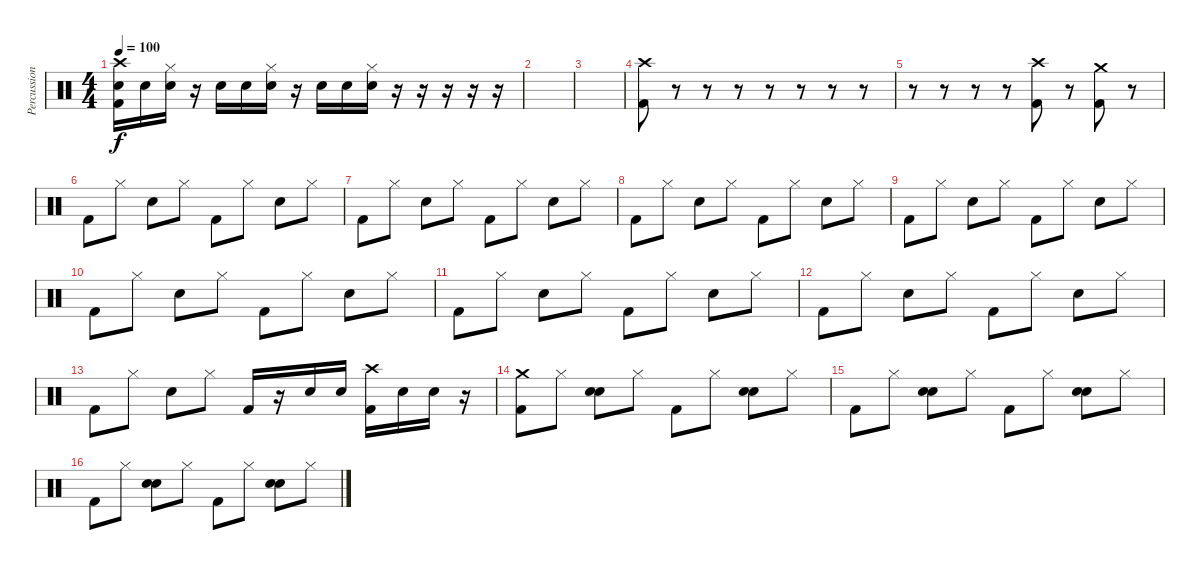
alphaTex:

\track ("Percussions" "Percussion") {instrument percussion}
\staff {score}
\articulation defaults
\ts (4 4)
\tempo 100
\clef neutral
\ks c
("Kick (hit) 2" "Crash high (hit)" "Electric Snare (hit)").16{dy f} "Electric Snare (hit)".16 ("Hi-Hat (closed)" "Electric Snare (hit)").16 r.16 "Electric Snare (hit)".16 "Electric Snare (hit)".16 ("Hi-Hat (closed)" "Electric Snare (hit)").16 r.16 "Electric Snare (hit)".16 "Electric Snare (hit)".16 ("Hi-Hat (closed)" "Electric Snare (hit)").16 r.16 r.16 r.16 r.16 r.16 |
|
|
("Crash high (hit)" "Kick (hit) 2").8 r.8 r.8 r.8 r.8 r.8 r.8 r.8 |
r.8 r.8 r.8 r.8 ("Kick (hit) 2" "Crash high (hit)").8 r.8 ("Kick (hit) 2" "Crash medium (hit)").8 r.8 |
"Kick (hit) 2".8 "Hi-Hat (closed)".8 "Electric Snare (hit)".8 "Hi-Hat (closed)".8 "Kick (hit) 2".8 "Hi-Hat (closed)".8 "Electric Snare (hit)".8 "Hi-Hat (closed)".8 |
"Kick (hit) 2".8 "Hi-Hat (closed)".8 "Electric Snare (hit)".8 "Hi-Hat (closed)".8 "Kick (hit) 2".8 "Hi-Hat (closed)".8 "Electric Snare (hit)".8 "Hi-Hat (closed)".8 |
"Kick (hit) 2".8 "Hi-Hat (closed)".8 "Electric Snare (hit)".8 "Hi-Hat (closed)".8 "Kick (hit) 2".8 "Hi-Hat (closed)".8 "Electric Snare (hit)".8 "Hi-Hat (closed)".8 |
"Kick (hit) 2".8 "Hi-Hat (closed)".8 "Electric Snare (hit)".8 "Hi-Hat (closed)".8 "Kick (hit) 2".8 "Hi-Hat (closed)".8 "Electric Snare (hit)".8 "Hi-Hat (closed)".8 |
"Kick (hit) 2".8 "Hi-Hat (closed)".8 "Electric Snare (hit)".8 "Hi-Hat (closed)".8 "Kick (hit) 2".8 "Hi-Hat (closed)".8 "Electric Snare (hit)".8 "Hi-Hat (closed)".8 |
"Kick (hit) 2".8 "Hi-Hat (closed)".8 "Electric Snare (hit)".8 "Hi-Hat (closed)".8 "Kick (hit) 2".8 "Hi-Hat (closed)".8 "Electric Snare (hit)".8 "Hi-Hat (closed)".8 |
"Kick (hit) 2".8 "Hi-Hat (closed)".8 "Electric Snare (hit)".8 "Hi-Hat (closed)".8 "Kick (hit) 2".8 "Hi-Hat (closed)".8 "Electric Snare (hit)".8 "Hi-Hat (closed)".8 |
"Kick (hit) 2".8 "Hi-Hat (closed)".8 "Electric Snare (hit)".8 "Hi-Hat (closed)".8 "Kick (hit) 2".16 r.16 "Electric Snare (hit)".16 "Electric Snare (hit)".16 ("Crash high (hit)" "Kick (hit) 2").16 "Electric Snare (hit)".16 "Electric Snare (hit)".16 r.16 |
("Crash medium (hit)" "Kick (hit) 2").8 "Hi-Hat (closed)".8 ("Hand Clap (hit)" "Electric Snare (hit)").8 "Hi-Hat (closed)".8 "Kick (hit) 2".8 "Hi-Hat (closed)".8 ("Hand Clap (hit)" "Electric Snare (hit)").8 "Hi-Hat (closed)".8 |
"Kick (hit) 2".8 "Hi-Hat (closed)".8 ("Hand Clap (hit)" "Electric Snare (hit)").8 "Hi-Hat (closed)".8 "Kick (hit) 2".8 "Hi-Hat (closed)".8 ("Hand Clap (hit)" "Electric Snare (hit)").8 "Hi-Hat (closed)".8 |
"Kick (hit) 2".8 "Hi-Hat (closed)".8 ("Hand Clap (hit)" "Electric Snare (hit)").8 "Hi-Hat (closed)".8 "Kick (hit) 2".8 "Hi-Hat (closed)".8 ("Hand Clap (hit)" "Electric Snare (hit)").8 "Hi-Hat (closed)".8
